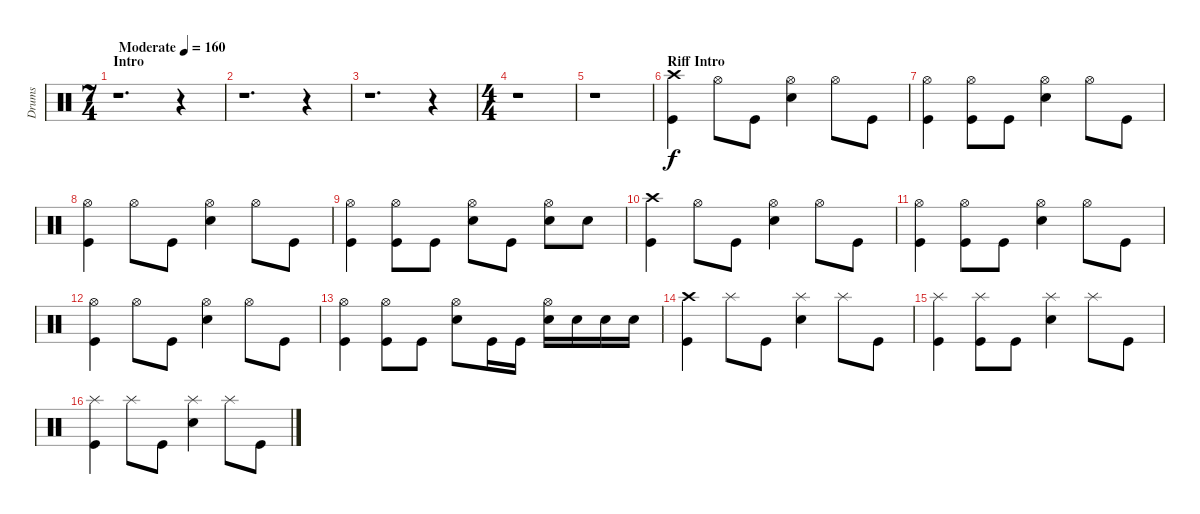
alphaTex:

\track ("Drums" "Drums") {instrument percussion}
\staff {score}
\articulation defaults
\ts (7 4)
\section ("" "Intro")
\tempo (160 "Moderate")
\clef neutral
\ks c
r.1{d dy f} r.4 |
r.1{d} r.4 |
r.1{d} r.4 |
\ts (4 4)
r.1 |
r.1 |
\section ("" "Riff Intro")
("Crash high (hit)" "Kick (hit)").4 "Hi-Hat (open)".8 "Kick (hit)".8 ("Hi-Hat (open)" "Snare (hit) 2").4 "Hi-Hat (open)".8 "Kick (hit)".8 |
("Hi-Hat (open)" "Kick (hit)").4 ("Hi-Hat (open)" "Kick (hit)").8 "Kick (hit)".8 ("Hi-Hat (open)" "Snare (hit) 2").4 "Hi-Hat (open)".8 "Kick (hit)".8 |
("Hi-Hat (open)" "Kick (hit)").4 "Hi-Hat (open)".8 "Kick (hit)".8 ("Hi-Hat (open)" "Snare (hit) 2").4 "Hi-Hat (open)".8 "Kick (hit)".8 |
("Hi-Hat (open)" "Kick (hit)").4 ("Hi-Hat (open)" "Kick (hit)").8 "Kick (hit)".8 ("Hi-Hat (open)" "Snare (hit) 2").8 "Kick (hit)".8 ("Hi-Hat (open)" "Snare (hit) 2").8 "Snare (hit) 2".8 |
("Crash high (hit)" "Kick (hit)").4 "Hi-Hat (open)".8 "Kick (hit)".8 ("Hi-Hat (open)" "Snare (hit) 2").4 "Hi-Hat (open)".8 "Kick (hit)".8 |
("Hi-Hat (open)" "Kick (hit)").4 ("Hi-Hat (open)" "Kick (hit)").8 "Kick (hit)".8 ("Hi-Hat (open)" "Snare (hit) 2").4 "Hi-Hat (open)".8 "Kick (hit)".8 |
("Hi-Hat (open)" "Kick (hit)").4 "Hi-Hat (open)".8 "Kick (hit)".8 ("Hi-Hat (open)" "Snare (hit) 2").4 "Hi-Hat (open)".8 "Kick (hit)".8 |
("Hi-Hat (open)" "Kick (hit)").4 ("Hi-Hat (open)" "Kick (hit)").8 "Kick (hit)".8 ("Hi-Hat (open)" "Snare (hit) 2").8 "Kick (hit)".16 "Kick (hit)".16 ("Hi-Hat (open)" "Snare (hit) 2").16 "Snare (hit) 2".16 "Snare (hit) 2".16 "Snare (hit) 2".16 |
("Crash high (hit)" "Kick (hit)").4 "Splash (hit)".8 "Kick (hit)".8 ("Splash (hit)" "Snare (hit) 2").4 "Splash (hit)".8 "Kick (hit)".8 |
("Splash (hit)" "Kick (hit)").4 ("Splash (hit)" "Kick (hit)").8 "Kick (hit)".8 ("Splash (hit)" "Snare (hit) 2").4 "Splash (hit)".8 "Kick (hit)".8 |
("Splash (hit)" "Kick (hit)").4 "Splash (hit)".8 "Kick (hit)".8 ("Splash (hit)" "Snare (hit) 2").4 "Splash (hit)".8 "Kick (hit)".8
